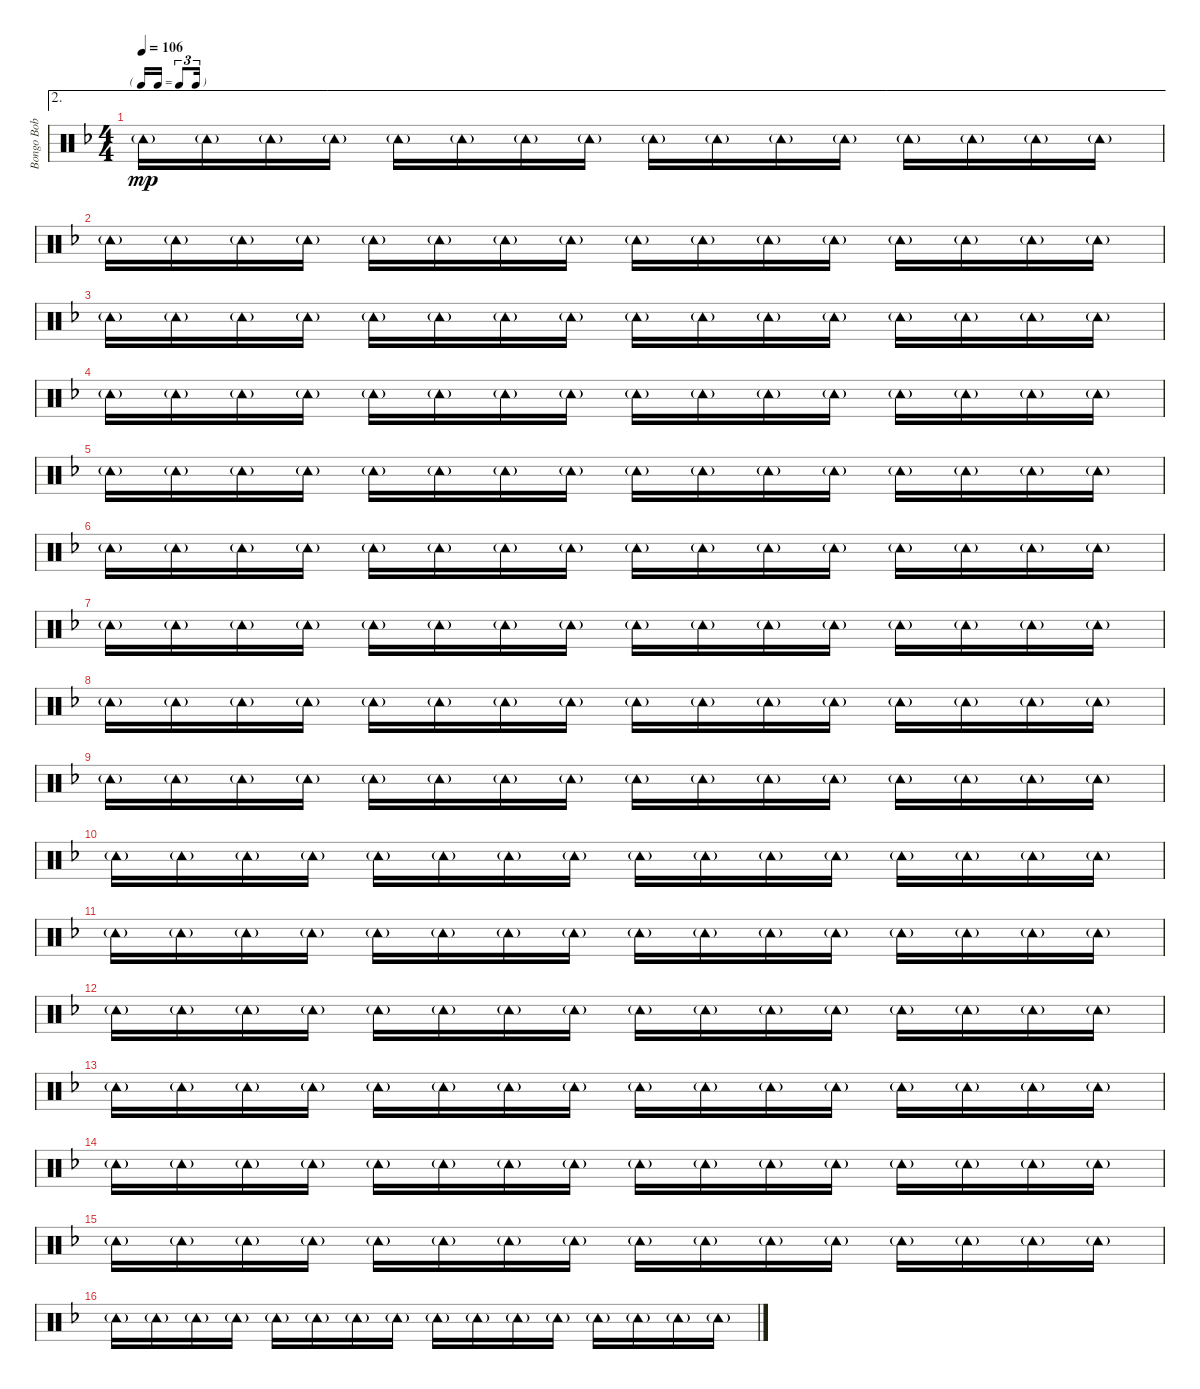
\track ("Bongo Bob Smith (Tambourine)" "Bongo Bob ") {instrument percussion}
\staff {score}
\articulation defaults
\ae 2
\ts (4 4)
\tf triplet16th
\tempo 106
\clef neutral
\ks f "Tambourine (hit)"{g}.16{dy mp} "Tambourine (hit)"{g}.16 "Tambourine (hit)"{g}.16 "Tambourine (hit)"{g}.16 "Tambourine (hit)"{g}.16 "Tambourine (hit)"{g}.16 "Tambourine (hit)"{g}.16 "Tambourine (hit)"{g}.16 "Tambourine (hit)"{g}.16 "Tambourine (hit)"{g}.16 "Tambourine (hit)"{g}.16 "Tambourine (hit)"{g}.16 "Tambourine (hit)"{g}.16 "Tambourine (hit)"{g}.16 "Tambourine (hit)"{g}.16 "Tambourine (hit)"{g}.16
|
"Tambourine (hit)"{g}.16 "Tambourine (hit)"{g}.16 "Tambourine (hit)"{g}.16 "Tambourine (hit)"{g}.16 "Tambourine (hit)"{g}.16 "Tambourine (hit)"{g}.16 "Tambourine (hit)"{g}.16 "Tambourine (hit)"{g}.16 "Tambourine (hit)"{g}.16 "Tambourine (hit)"{g}.16 "Tambourine (hit)"{g}.16 "Tambourine (hit)"{g}.16 "Tambourine (hit)"{g}.16 "Tambourine (hit)"{g}.16 "Tambourine (hit)"{g}.16 "Tambourine (hit)"{g}.16 |
"Tambourine (hit)"{g}.16 "Tambourine (hit)"{g}.16 "Tambourine (hit)"{g}.16 "Tambourine (hit)"{g}.16 "Tambourine (hit)"{g}.16 "Tambourine (hit)"{g}.16 "Tambourine (hit)"{g}.16 "Tambourine (hit)"{g}.16 "Tambourine (hit)"{g}.16 "Tambourine (hit)"{g}.16 "Tambourine (hit)"{g}.16 "Tambourine (hit)"{g}.16 "Tambourine (hit)"{g}.16 "Tambourine (hit)"{g}.16 "Tambourine (hit)"{g}.16 "Tambourine (hit)"{g}.16 |
"Tambourine (hit)"{g}.16 "Tambourine (hit)"{g}.16 "Tambourine (hit)"{g}.16 "Tambourine (hit)"{g}.16 "Tambourine (hit)"{g}.16 "Tambourine (hit)"{g}.16 "Tambourine (hit)"{g}.16 "Tambourine (hit)"{g}.16 "Tambourine (hit)"{g}.16 "Tambourine (hit)"{g}.16 "Tambourine (hit)"{g}.16 "Tambourine (hit)"{g}.16 "Tambourine (hit)"{g}.16 "Tambourine (hit)"{g}.16 "Tambourine (hit)"{g}.16 "Tambourine (hit)"{g}.16 |
"Tambourine (hit)"{g}.16 "Tambourine (hit)"{g}.16 "Tambourine (hit)"{g}.16 "Tambourine (hit)"{g}.16 "Tambourine (hit)"{g}.16 "Tambourine (hit)"{g}.16 "Tambourine (hit)"{g}.16 "Tambourine (hit)"{g}.16 "Tambourine (hit)"{g}.16 "Tambourine (hit)"{g}.16 "Tambourine (hit)"{g}.16 "Tambourine (hit)"{g}.16 "Tambourine (hit)"{g}.16 "Tambourine (hit)"{g}.16 "Tambourine (hit)"{g}.16 "Tambourine (hit)"{g}.16 |
"Tambourine (hit)"{g}.16 "Tambourine (hit)"{g}.16 "Tambourine (hit)"{g}.16 "Tambourine (hit)"{g}.16 "Tambourine (hit)"{g}.16 "Tambourine (hit)"{g}.16 "Tambourine (hit)"{g}.16 "Tambourine (hit)"{g}.16 "Tambourine (hit)"{g}.16 "Tambourine (hit)"{g}.16 "Tambourine (hit)"{g}.16 "Tambourine (hit)"{g}.16 "Tambourine (hit)"{g}.16 "Tambourine (hit)"{g}.16 "Tambourine (hit)"{g}.16 "Tambourine (hit)"{g}.16 |
"Tambourine (hit)"{g}.16 "Tambourine (hit)"{g}.16 "Tambourine (hit)"{g}.16 "Tambourine (hit)"{g}.16 "Tambourine (hit)"{g}.16 "Tambourine (hit)"{g}.16 "Tambourine (hit)"{g}.16 "Tambourine (hit)"{g}.16 "Tambourine (hit)"{g}.16 "Tambourine (hit)"{g}.16 "Tambourine (hit)"{g}.16 "Tambourine (hit)"{g}.16 "Tambourine (hit)"{g}.16 "Tambourine (hit)"{g}.16 "Tambourine (hit)"{g}.16 "Tambourine (hit)"{g}.16 |
"Tambourine (hit)"{g}.16 "Tambourine (hit)"{g}.16 "Tambourine (hit)"{g}.16 "Tambourine (hit)"{g}.16 "Tambourine (hit)"{g}.16 "Tambourine (hit)"{g}.16 "Tambourine (hit)"{g}.16 "Tambourine (hit)"{g}.16 "Tambourine (hit)"{g}.16 "Tambourine (hit)"{g}.16 "Tambourine (hit)"{g}.16 "Tambourine (hit)"{g}.16 "Tambourine (hit)"{g}.16 "Tambourine (hit)"{g}.16 "Tambourine (hit)"{g}.16 "Tambourine (hit)"{g}.16 |
"Tambourine (hit)"{g}.16 "Tambourine (hit)"{g}.16 "Tambourine (hit)"{g}.16 "Tambourine (hit)"{g}.16 "Tambourine (hit)"{g}.16 "Tambourine (hit)"{g}.16 "Tambourine (hit)"{g}.16 "Tambourine (hit)"{g}.16 "Tambourine (hit)"{g}.16 "Tambourine (hit)"{g}.16 "Tambourine (hit)"{g}.16 "Tambourine (hit)"{g}.16 "Tambourine (hit)"{g}.16 "Tambourine (hit)"{g}.16 "Tambourine (hit)"{g}.16 "Tambourine (hit)"{g}.16 |
"Tambourine (hit)"{g}.16 "Tambourine (hit)"{g}.16 "Tambourine (hit)"{g}.16 "Tambourine (hit)"{g}.16 "Tambourine (hit)"{g}.16 "Tambourine (hit)"{g}.16 "Tambourine (hit)"{g}.16 "Tambourine (hit)"{g}.16 "Tambourine (hit)"{g}.16 "Tambourine (hit)"{g}.16 "Tambourine (hit)"{g}.16 "Tambourine (hit)"{g}.16 "Tambourine (hit)"{g}.16 "Tambourine (hit)"{g}.16 "Tambourine (hit)"{g}.16 "Tambourine (hit)"{g}.16 |
"Tambourine (hit)"{g}.16 "Tambourine (hit)"{g}.16 "Tambourine (hit)"{g}.16 "Tambourine (hit)"{g}.16 "Tambourine (hit)"{g}.16 "Tambourine (hit)"{g}.16 "Tambourine (hit)"{g}.16 "Tambourine (hit)"{g}.16 "Tambourine (hit)"{g}.16 "Tambourine (hit)"{g}.16 "Tambourine (hit)"{g}.16 "Tambourine (hit)"{g}.16 "Tambourine (hit)"{g}.16 "Tambourine (hit)"{g}.16 "Tambourine (hit)"{g}.16 "Tambourine (hit)"{g}.16 |
"Tambourine (hit)"{g}.16 "Tambourine (hit)"{g}.16 "Tambourine (hit)"{g}.16 "Tambourine (hit)"{g}.16 "Tambourine (hit)"{g}.16 "Tambourine (hit)"{g}.16 "Tambourine (hit)"{g}.16 "Tambourine (hit)"{g}.16 "Tambourine (hit)"{g}.16 "Tambourine (hit)"{g}.16 "Tambourine (hit)"{g}.16 "Tambourine (hit)"{g}.16 "Tambourine (hit)"{g}.16 "Tambourine (hit)"{g}.16 "Tambourine (hit)"{g}.16 "Tambourine (hit)"{g}.16 |
"Tambourine (hit)"{g}.16 "Tambourine (hit)"{g}.16 "Tambourine (hit)"{g}.16 "Tambourine (hit)"{g}.16 "Tambourine (hit)"{g}.16 "Tambourine (hit)"{g}.16 "Tambourine (hit)"{g}.16 "Tambourine (hit)"{g}.16 "Tambourine (hit)"{g}.16 "Tambourine (hit)"{g}.16 "Tambourine (hit)"{g}.16 "Tambourine (hit)"{g}.16 "Tambourine (hit)"{g}.16 "Tambourine (hit)"{g}.16 "Tambourine (hit)"{g}.16 "Tambourine (hit)"{g}.16 |
"Tambourine (hit)"{g}.16 "Tambourine (hit)"{g}.16 "Tambourine (hit)"{g}.16 "Tambourine (hit)"{g}.16 "Tambourine (hit)"{g}.16 "Tambourine (hit)"{g}.16 "Tambourine (hit)"{g}.16 "Tambourine (hit)"{g}.16 "Tambourine (hit)"{g}.16 "Tambourine (hit)"{g}.16 "Tambourine (hit)"{g}.16 "Tambourine (hit)"{g}.16 "Tambourine (hit)"{g}.16 "Tambourine (hit)"{g}.16 "Tambourine (hit)"{g}.16 "Tambourine (hit)"{g}.16 |
"Tambourine (hit)"{g}.16 "Tambourine (hit)"{g}.16 "Tambourine (hit)"{g}.16 "Tambourine (hit)"{g}.16 "Tambourine (hit)"{g}.16 "Tambourine (hit)"{g}.16 "Tambourine (hit)"{g}.16 "Tambourine (hit)"{g}.16 "Tambourine (hit)"{g}.16 "Tambourine (hit)"{g}.16 "Tambourine (hit)"{g}.16 "Tambourine (hit)"{g}.16 "Tambourine (hit)"{g}.16 "Tambourine (hit)"{g}.16 "Tambourine (hit)"{g}.16 "Tambourine (hit)"{g}.16 |
"Tambourine (hit)"{g}.16 "Tambourine (hit)"{g}.16 "Tambourine (hit)"{g}.16 "Tambourine (hit)"{g}.16 "Tambourine (hit)"{g}.16 "Tambourine (hit)"{g}.16 "Tambourine (hit)"{g}.16 "Tambourine (hit)"{g}.16 "Tambourine (hit)"{g}.16 "Tambourine (hit)"{g}.16 "Tambourine (hit)"{g}.16 "Tambourine (hit)"{g}.16 "Tambourine (hit)"{g}.16 "Tambourine (hit)"{g}.16 "Tambourine (hit)"{g}.16 "Tambourine (hit)"{g}.16
